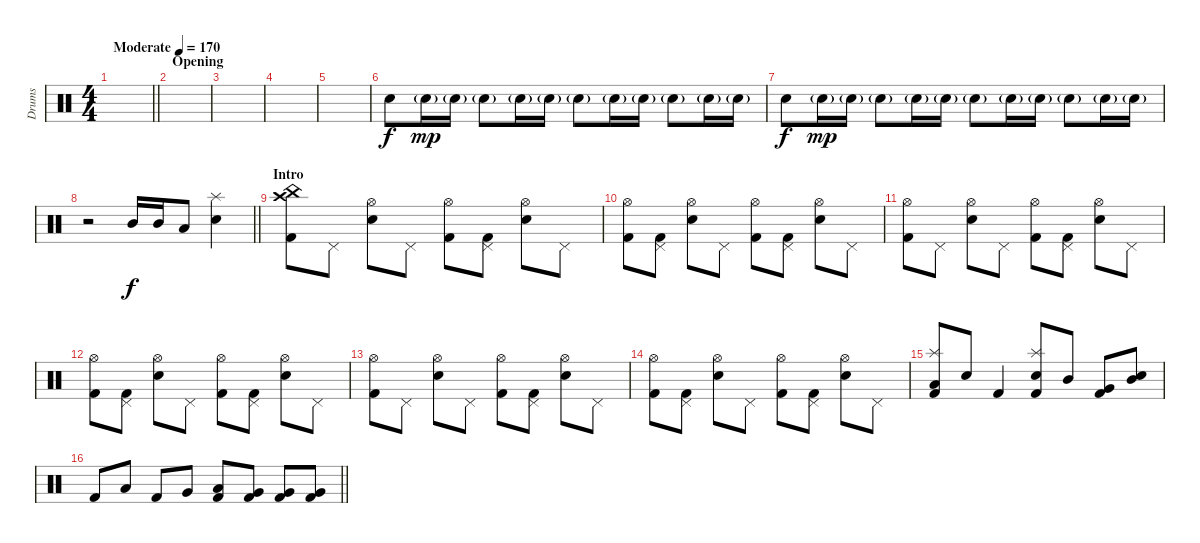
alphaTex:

\track ("Drums" "Drums") {instrument percussion}
\staff {score}
\articulation defaults
\ts (4 4)
\tempo (170 "Moderate")
\clef neutral
\barLineRight lightlight
\ks c
|
\section ("" "Opening")
|
|
|
|
"Snare (hit) 2".8 "Snare (hit) 2"{g}.16{dy mp} "Snare (hit) 2"{g}.16 "Snare (hit) 2"{g}.8 "Snare (hit) 2"{g}.16 "Snare (hit) 2"{g}.16 "Snare (hit) 2"{g}.8 "Snare (hit) 2"{g}.16 "Snare (hit) 2"{g}.16 "Snare (hit) 2"{g}.8 "Snare (hit) 2"{g}.16 "Snare (hit) 2"{g}.16 |
"Snare (hit) 2".8{dy f} "Snare (hit) 2"{g}.16{dy mp} "Snare (hit) 2"{g}.16 "Snare (hit) 2"{g}.8 "Snare (hit) 2"{g}.16 "Snare (hit) 2"{g}.16 "Snare (hit) 2"{g}.8 "Snare (hit) 2"{g}.16 "Snare (hit) 2"{g}.16 "Snare (hit) 2"{g}.8 "Snare (hit) 2"{g}.16 "Snare (hit) 2"{g}.16 |
\barLineRight lightlight
r.2 "Mid Tom (hit)".16{dy f} "Mid Tom (hit)".16 "Low Tom (hit)".8 ("Splash (hit)" "Snare (hit) 2").4 |
\section ("" "Intro")
("Crash high (hit)" "China (hit)" "Kick (hit) 2").8 "Pedal Hi-Hat (hit)".8 ("Hi-Hat (open)" "Snare (hit) 2").8 "Pedal Hi-Hat (hit)".8 ("Hi-Hat (open)" "Kick (hit) 2").8 ("Pedal Hi-Hat (hit)" "Kick (hit) 2").8 ("Hi-Hat (open)" "Snare (hit) 2").8 "Pedal Hi-Hat (hit)".8 |
("Hi-Hat (open)" "Kick (hit) 2").8 ("Pedal Hi-Hat (hit)" "Kick (hit) 2").8 ("Hi-Hat (open)" "Snare (hit) 2").8 "Pedal Hi-Hat (hit)".8 ("Hi-Hat (open)" "Kick (hit) 2").8 ("Pedal Hi-Hat (hit)" "Kick (hit) 2").8 ("Hi-Hat (open)" "Snare (hit) 2").8 "Pedal Hi-Hat (hit)".8 |
("Hi-Hat (open)" "Kick (hit) 2").8 "Pedal Hi-Hat (hit)".8 ("Hi-Hat (open)" "Snare (hit) 2").8 "Pedal Hi-Hat (hit)".8 ("Hi-Hat (open)" "Kick (hit) 2").8 ("Pedal Hi-Hat (hit)" "Kick (hit) 2").8 ("Hi-Hat (open)" "Snare (hit) 2").8 "Pedal Hi-Hat (hit)".8 |
("Hi-Hat (open)" "Kick (hit) 2").8 ("Pedal Hi-Hat (hit)" "Kick (hit) 2").8 ("Hi-Hat (open)" "Snare (hit) 2").8 "Pedal Hi-Hat (hit)".8 ("Hi-Hat (open)" "Kick (hit) 2").8 ("Pedal Hi-Hat (hit)" "Kick (hit) 2").8 ("Hi-Hat (open)" "Snare (hit) 2").8 "Pedal Hi-Hat (hit)".8 |
("Hi-Hat (open)" "Kick (hit) 2").8 "Pedal Hi-Hat (hit)".8 ("Hi-Hat (open)" "Snare (hit) 2").8 "Pedal Hi-Hat (hit)".8 ("Hi-Hat (open)" "Kick (hit) 2").8 ("Pedal Hi-Hat (hit)" "Kick (hit) 2").8 ("Hi-Hat (open)" "Snare (hit) 2").8 "Pedal Hi-Hat (hit)".8 |
("Hi-Hat (open)" "Kick (hit) 2").8 ("Pedal Hi-Hat (hit)" "Kick (hit) 2").8 ("Hi-Hat (open)" "Snare (hit) 2").8 "Pedal Hi-Hat (hit)".8 ("Hi-Hat (open)" "Kick (hit) 2").8 ("Pedal Hi-Hat (hit)" "Kick (hit) 2").8 ("Hi-Hat (open)" "Snare (hit) 2").8 "Pedal Hi-Hat (hit)".8 |
("Splash (hit)" "Low Tom (hit)" "Kick (hit) 2").8 "Snare (hit) 2".8 "Kick (hit) 2".4 ("Splash (hit)" "Snare (hit) 2" "Kick (hit) 2").8 "Mid Tom (hit)".8 ("Very Low Tom (hit)" "Kick (hit) 2").8 ("Mid Tom (hit)" "Snare (hit) 2").8 |
\barLineRight lightlight "Kick (hit) 2".8 "Low Tom (hit)".8 "Kick (hit) 2".8 "Very Low Tom (hit)".8
("Low Tom (hit)" "Kick (hit) 2").8 ("Very Low Tom (hit)" "Kick (hit) 2").8 ("Very Low Tom (hit)" "Kick (hit) 2").8 ("Very Low Tom (hit)" "Kick (hit) 2").8
